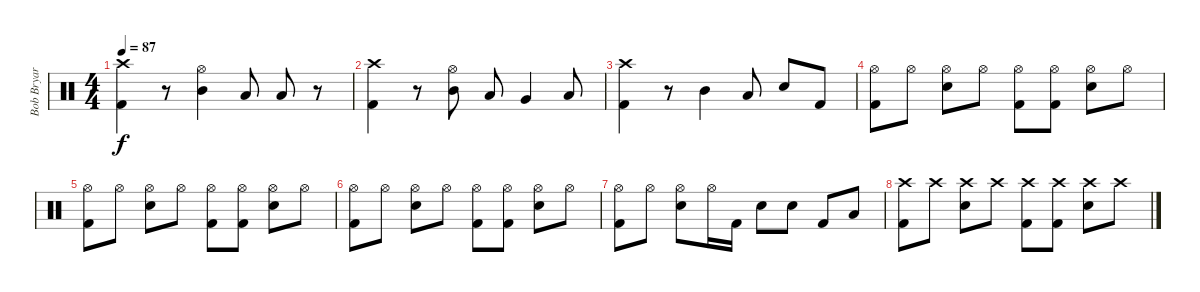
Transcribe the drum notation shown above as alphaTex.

\track ("Bob Bryar" "Bob Bryar") {instrument percussion}
\staff {score}
\articulation defaults
\ts (4 4)
\tempo 87
\clef neutral
\ks c
("Crash high (hit)" "Kick (hit) 2").4{dy f} r.8 ("Hi-Hat (open)" "Mid Tom (hit)").4 "Low Tom (hit)".8 "Low Tom (hit)".8 r.8 |
("Crash high (hit)" "Kick (hit) 2").4 r.8 ("Hi-Hat (open)" "Mid Tom (hit)").8 "Low Tom (hit)".8 "Very Low Tom (hit)".4 "Low Tom (hit)".8 |
("Crash high (hit)" "Kick (hit) 2").4 r.8 "Mid Tom (hit)".4 "Low Tom (hit)".8 "Electric Snare (hit)".8 "Kick (hit) 2".8 |
("Hi-Hat (open)" "Kick (hit) 2").8 "Hi-Hat (open)".8 ("Hi-Hat (open)" "Electric Snare (hit)").8 "Hi-Hat (open)".8 ("Hi-Hat (open)" "Kick (hit) 2").8 ("Hi-Hat (open)" "Kick (hit) 2").8 ("Hi-Hat (open)" "Electric Snare (hit)").8 "Hi-Hat (open)".8 |
("Hi-Hat (open)" "Kick (hit) 2").8 "Hi-Hat (open)".8 ("Hi-Hat (open)" "Electric Snare (hit)").8 "Hi-Hat (open)".8 ("Hi-Hat (open)" "Kick (hit) 2").8 ("Hi-Hat (open)" "Kick (hit) 2").8 ("Hi-Hat (open)" "Electric Snare (hit)").8 "Hi-Hat (open)".8 |
("Hi-Hat (open)" "Kick (hit) 2").8 "Hi-Hat (open)".8 ("Hi-Hat (open)" "Electric Snare (hit)").8 "Hi-Hat (open)".8 ("Hi-Hat (open)" "Kick (hit) 2").8 ("Hi-Hat (open)" "Kick (hit) 2").8 ("Hi-Hat (open)" "Electric Snare (hit)").8 "Hi-Hat (open)".8 |
("Hi-Hat (open)" "Kick (hit) 2").8 "Hi-Hat (open)".8 ("Hi-Hat (open)" "Electric Snare (hit)").8 "Hi-Hat (open)".16 "Kick (hit) 2".16 "Electric Snare (hit)".8 "Electric Snare (hit)".8 "Kick (hit) 2".8 "Low Tom (hit)".8 |
("Crash high (hit)" "Kick (hit) 2").8 "Crash high (hit)".8 ("Crash high (hit)" "Electric Snare (hit)").8 "Crash high (hit)".8 ("Crash high (hit)" "Kick (hit) 2").8 ("Crash high (hit)" "Kick (hit) 2").8 ("Crash high (hit)" "Electric Snare (hit)").8 "Crash high (hit)".8
